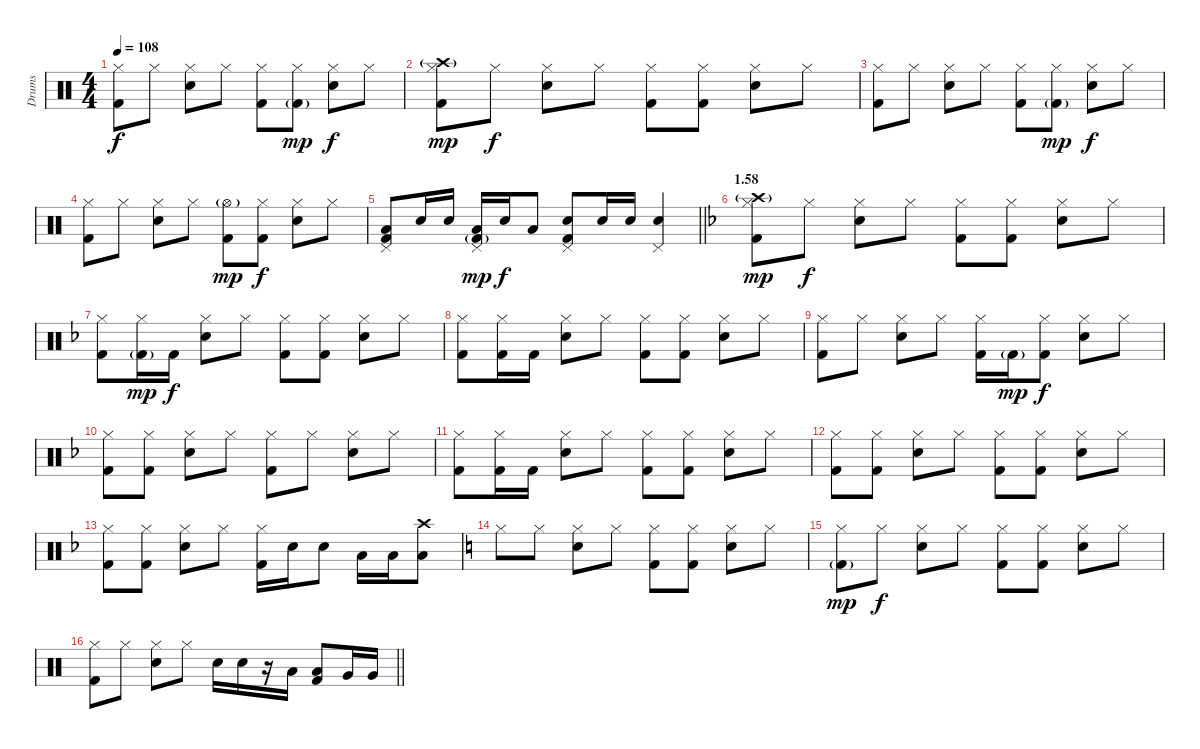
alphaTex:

\track ("Drums" "Drums") {instrument percussion}
\staff {score}
\articulation defaults
\ts (4 4)
\tempo 108
\clef neutral
\ks c
("Hi-Hat (closed)" "Kick (hit) 2").8{dy f} "Hi-Hat (closed)".8 ("Hi-Hat (closed)" "Electric Snare (hit)").8 "Hi-Hat (closed)".8 ("Hi-Hat (closed)" "Kick (hit) 2").8 ("Hi-Hat (closed)" "Kick (hit) 2"{g}).8{dy mp} ("Hi-Hat (closed)" "Electric Snare (hit)").8{dy f} "Hi-Hat (closed)".8 |
("Crash high (hit)"{g} "Hi-Hat (closed)" "Kick (hit) 2").8{dy mp} "Hi-Hat (closed)".8{dy f} ("Hi-Hat (closed)" "Electric Snare (hit)").8 "Hi-Hat (closed)".8 ("Hi-Hat (closed)" "Kick (hit) 2").8 ("Hi-Hat (closed)" "Kick (hit) 2").8 ("Hi-Hat (closed)" "Electric Snare (hit)").8 "Hi-Hat (closed)".8 |
("Hi-Hat (closed)" "Kick (hit) 2").8 "Hi-Hat (closed)".8 ("Hi-Hat (closed)" "Electric Snare (hit)").8 "Hi-Hat (closed)".8 ("Hi-Hat (closed)" "Kick (hit) 2").8 ("Hi-Hat (closed)" "Kick (hit) 2"{g}).8{dy mp} ("Hi-Hat (closed)" "Electric Snare (hit)").8{dy f} "Hi-Hat (closed)".8 |
("Hi-Hat (closed)" "Kick (hit) 2").8 "Hi-Hat (closed)".8 ("Hi-Hat (closed)" "Electric Snare (hit)").8 "Hi-Hat (closed)".8 ("Hi-Hat (open)"{g} "Kick (hit) 2").8{dy mp} ("Hi-Hat (closed)" "Kick (hit) 2").8{dy f} ("Hi-Hat (closed)" "Electric Snare (hit)").8 "Hi-Hat (closed)".8 |
\barLineRight lightlight
("Pedal Hi-Hat (hit)" "Low Tom (hit)" "Kick (hit) 2").8 "Electric Snare (hit)".16 "Electric Snare (hit)".16 ("Pedal Hi-Hat (hit)" "Low Tom (hit)" "Kick (hit) 2"{g}).16{dy mp} "Electric Snare (hit)".16{dy f} "Low Tom (hit)".8 ("Pedal Hi-Hat (hit)" "Electric Snare (hit)" "Kick (hit) 2").8 "Electric Snare (hit)".16 "Electric Snare (hit)".16 ("Pedal Hi-Hat (hit)" "Electric Snare (hit)").4 |
\section ("" "1.58")
\ks f
("Crash high (hit)"{g} "Hi-Hat (closed)" "Kick (hit) 2").8{dy mp} "Hi-Hat (closed)".8{dy f} ("Hi-Hat (closed)" "Electric Snare (hit)").8 "Hi-Hat (closed)".8 ("Hi-Hat (closed)" "Kick (hit) 2").8 ("Hi-Hat (closed)" "Kick (hit) 2").8 ("Hi-Hat (closed)" "Electric Snare (hit)").8 "Hi-Hat (closed)".8 |
("Hi-Hat (closed)" "Kick (hit) 2").8 ("Hi-Hat (closed)" "Kick (hit) 2"{g}).16{dy mp} "Kick (hit) 2".16{dy f} ("Hi-Hat (closed)" "Electric Snare (hit)").8 "Hi-Hat (closed)".8 ("Hi-Hat (closed)" "Kick (hit) 2").8 ("Hi-Hat (closed)" "Kick (hit) 2").8 ("Hi-Hat (closed)" "Electric Snare (hit)").8 "Hi-Hat (closed)".8 |
("Hi-Hat (closed)" "Kick (hit) 2").8 ("Hi-Hat (closed)" "Kick (hit) 2").16 "Kick (hit) 2".16 ("Hi-Hat (closed)" "Electric Snare (hit)").8 "Hi-Hat (closed)".8 ("Hi-Hat (closed)" "Kick (hit) 2").8 ("Hi-Hat (closed)" "Kick (hit) 2").8 ("Hi-Hat (closed)" "Electric Snare (hit)").8 "Hi-Hat (closed)".8 |
("Hi-Hat (closed)" "Kick (hit) 2").8 "Hi-Hat (closed)".8 ("Hi-Hat (closed)" "Electric Snare (hit)").8 "Hi-Hat (closed)".8 ("Hi-Hat (closed)" "Kick (hit) 2").16 "Kick (hit) 2"{g}.16{dy mp} ("Hi-Hat (closed)" "Kick (hit) 2").8{dy f} ("Hi-Hat (closed)" "Electric Snare (hit)").8 "Hi-Hat (closed)".8 |
("Hi-Hat (closed)" "Kick (hit) 2").8 ("Hi-Hat (closed)" "Kick (hit) 2").8 ("Hi-Hat (closed)" "Electric Snare (hit)").8 "Hi-Hat (closed)".8 ("Hi-Hat (closed)" "Kick (hit) 2").8 "Hi-Hat (closed)".8 ("Hi-Hat (closed)" "Electric Snare (hit)").8 "Hi-Hat (closed)".8 |
("Hi-Hat (closed)" "Kick (hit) 2").8 ("Hi-Hat (closed)" "Kick (hit) 2").16 "Kick (hit) 2".16 ("Hi-Hat (closed)" "Electric Snare (hit)").8 "Hi-Hat (closed)".8 ("Hi-Hat (closed)" "Kick (hit) 2").8 ("Hi-Hat (closed)" "Kick (hit) 2").8 ("Hi-Hat (closed)" "Electric Snare (hit)").8 "Hi-Hat (closed)".8 |
("Hi-Hat (closed)" "Kick (hit) 2").8 ("Hi-Hat (closed)" "Kick (hit) 2").8 ("Hi-Hat (closed)" "Electric Snare (hit)").8 "Hi-Hat (closed)".8 ("Hi-Hat (closed)" "Kick (hit) 2").8 ("Hi-Hat (closed)" "Kick (hit) 2").8 ("Hi-Hat (closed)" "Electric Snare (hit)").8 "Hi-Hat (closed)".8 |
("Hi-Hat (closed)" "Kick (hit) 2").8 ("Hi-Hat (closed)" "Kick (hit) 2").8 ("Hi-Hat (closed)" "Electric Snare (hit)").8 "Hi-Hat (closed)".8 ("Hi-Hat (closed)" "Kick (hit) 2").16 "Electric Snare (hit)".16 "Electric Snare (hit)".8 "Low Tom (hit)".16 "Low Tom (hit)".16 ("Crash high (hit)" "Low Tom (hit)").8 |
\ks c "Hi-Hat (closed)".8 "Hi-Hat (closed)".8
("Hi-Hat (closed)" "Electric Snare (hit)").8 "Hi-Hat (closed)".8 ("Hi-Hat (closed)" "Kick (hit) 2").8 ("Hi-Hat (closed)" "Kick (hit) 2").8 ("Hi-Hat (closed)" "Electric Snare (hit)").8 "Hi-Hat (closed)".8 |
("Hi-Hat (closed)" "Kick (hit) 2"{g}).8{dy mp} "Hi-Hat (closed)".8{dy f} ("Hi-Hat (closed)" "Electric Snare (hit)").8 "Hi-Hat (closed)".8 ("Hi-Hat (closed)" "Kick (hit) 2").8 ("Hi-Hat (closed)" "Kick (hit) 2").8 ("Hi-Hat (closed)" "Electric Snare (hit)").8 "Hi-Hat (closed)".8 |
\barLineRight lightlight
("Hi-Hat (closed)" "Kick (hit) 2").8 "Hi-Hat (closed)".8 ("Hi-Hat (closed)" "Electric Snare (hit)").8 "Hi-Hat (closed)".8 "Electric Snare (hit)".16 "Electric Snare (hit)".16 r.16 "Low Tom (hit)".16 ("Low Tom (hit)" "Kick (hit) 2").8 "Very Low Tom (hit)".16 "Very Low Tom (hit)".16
